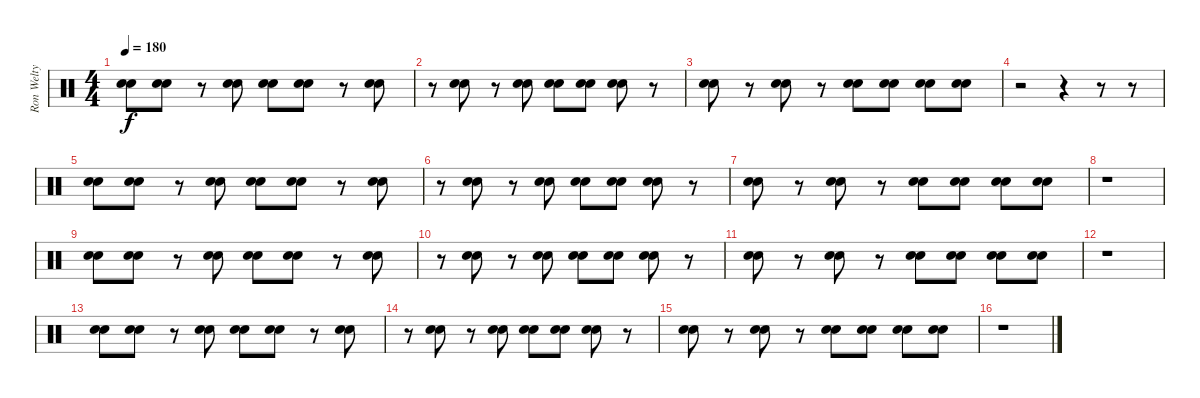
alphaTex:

\track ("Ron Welty (Drums)" "Ron Welty ") {instrument percussion}
\staff {score}
\articulation defaults
\ts (4 4)
\tempo 180
\clef neutral
\ks c
("Electric Snare (hit)" "Snare (hit) 2").8{dy f} ("Electric Snare (hit)" "Snare (hit) 2").8 r.8 ("Electric Snare (hit)" "Snare (hit) 2").8 ("Electric Snare (hit)" "Snare (hit) 2").8 ("Electric Snare (hit)" "Snare (hit) 2").8 r.8 ("Electric Snare (hit)" "Snare (hit) 2").8 |
r.8 ("Electric Snare (hit)" "Snare (hit) 2").8 r.8 ("Electric Snare (hit)" "Snare (hit) 2").8 ("Electric Snare (hit)" "Snare (hit) 2").8 ("Electric Snare (hit)" "Snare (hit) 2").8 ("Electric Snare (hit)" "Snare (hit) 2").8 r.8 |
("Electric Snare (hit)" "Snare (hit) 2").8 r.8 ("Electric Snare (hit)" "Snare (hit) 2").8 r.8 ("Electric Snare (hit)" "Snare (hit) 2").8 ("Electric Snare (hit)" "Snare (hit) 2").8 ("Electric Snare (hit)" "Snare (hit) 2").8 ("Electric Snare (hit)" "Snare (hit) 2").8 |
r.2 r.4 r.8 r.8 |
("Electric Snare (hit)" "Snare (hit) 2").8 ("Electric Snare (hit)" "Snare (hit) 2").8 r.8 ("Electric Snare (hit)" "Snare (hit) 2").8 ("Electric Snare (hit)" "Snare (hit) 2").8 ("Electric Snare (hit)" "Snare (hit) 2").8 r.8 ("Electric Snare (hit)" "Snare (hit) 2").8 |
r.8 ("Electric Snare (hit)" "Snare (hit) 2").8 r.8 ("Electric Snare (hit)" "Snare (hit) 2").8 ("Electric Snare (hit)" "Snare (hit) 2").8 ("Electric Snare (hit)" "Snare (hit) 2").8 ("Electric Snare (hit)" "Snare (hit) 2").8 r.8 |
("Electric Snare (hit)" "Snare (hit) 2").8 r.8 ("Electric Snare (hit)" "Snare (hit) 2").8 r.8 ("Electric Snare (hit)" "Snare (hit) 2").8 ("Electric Snare (hit)" "Snare (hit) 2").8 ("Electric Snare (hit)" "Snare (hit) 2").8 ("Electric Snare (hit)" "Snare (hit) 2").8 |
r.1 |
("Electric Snare (hit)" "Snare (hit) 2").8 ("Electric Snare (hit)" "Snare (hit) 2").8 r.8 ("Electric Snare (hit)" "Snare (hit) 2").8 ("Electric Snare (hit)" "Snare (hit) 2").8 ("Electric Snare (hit)" "Snare (hit) 2").8 r.8 ("Electric Snare (hit)" "Snare (hit) 2").8 |
r.8 ("Electric Snare (hit)" "Snare (hit) 2").8 r.8 ("Electric Snare (hit)" "Snare (hit) 2").8 ("Electric Snare (hit)" "Snare (hit) 2").8 ("Electric Snare (hit)" "Snare (hit) 2").8 ("Electric Snare (hit)" "Snare (hit) 2").8 r.8 |
("Electric Snare (hit)" "Snare (hit) 2").8 r.8 ("Electric Snare (hit)" "Snare (hit) 2").8 r.8 ("Electric Snare (hit)" "Snare (hit) 2").8 ("Electric Snare (hit)" "Snare (hit) 2").8 ("Electric Snare (hit)" "Snare (hit) 2").8 ("Electric Snare (hit)" "Snare (hit) 2").8 |
r.1 |
("Electric Snare (hit)" "Snare (hit) 2").8 ("Electric Snare (hit)" "Snare (hit) 2").8 r.8 ("Electric Snare (hit)" "Snare (hit) 2").8 ("Electric Snare (hit)" "Snare (hit) 2").8 ("Electric Snare (hit)" "Snare (hit) 2").8 r.8 ("Electric Snare (hit)" "Snare (hit) 2").8 |
r.8 ("Electric Snare (hit)" "Snare (hit) 2").8 r.8 ("Electric Snare (hit)" "Snare (hit) 2").8 ("Electric Snare (hit)" "Snare (hit) 2").8 ("Electric Snare (hit)" "Snare (hit) 2").8 ("Electric Snare (hit)" "Snare (hit) 2").8 r.8 |
("Electric Snare (hit)" "Snare (hit) 2").8 r.8 ("Electric Snare (hit)" "Snare (hit) 2").8 r.8 ("Electric Snare (hit)" "Snare (hit) 2").8 ("Electric Snare (hit)" "Snare (hit) 2").8 ("Electric Snare (hit)" "Snare (hit) 2").8 ("Electric Snare (hit)" "Snare (hit) 2").8 |
r.1
